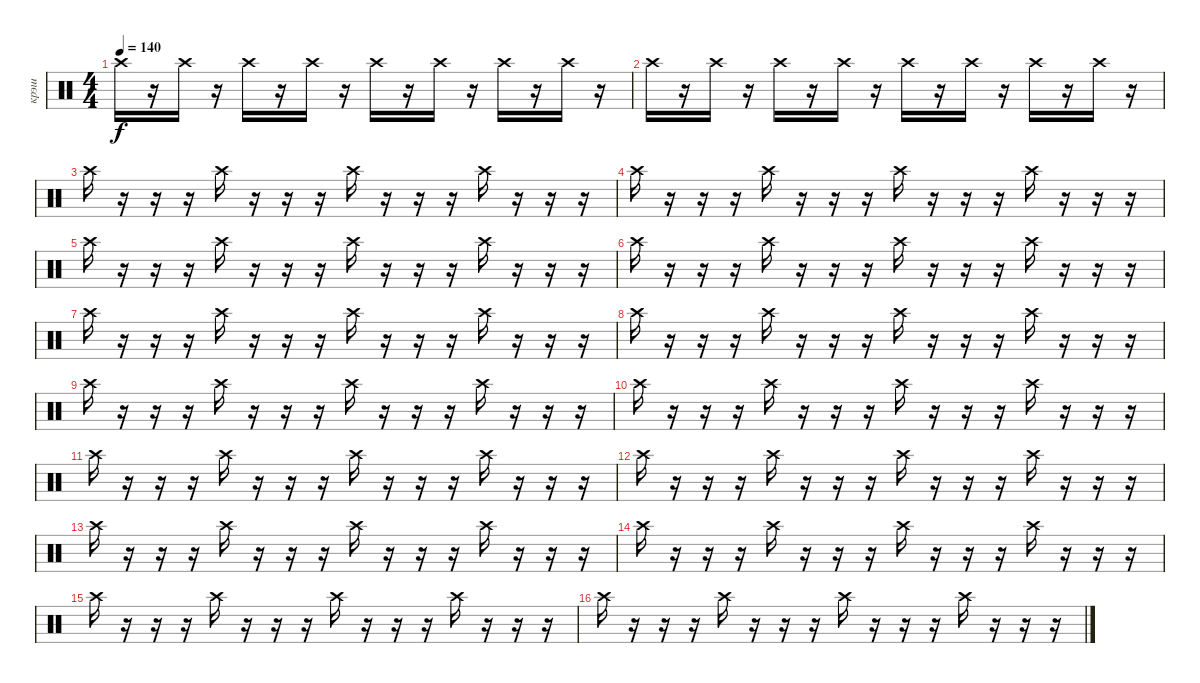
\track ("крэш" "крэш") {mute instrument percussion}
\staff {score}
\articulation defaults
\ts (4 4)
\tempo 140
\clef neutral
\ks c "Crash high (hit)".16{dy f}
r.16 "Crash high (hit)".16 r.16 "Crash high (hit)".16 r.16 "Crash high (hit)".16 r.16 "Crash high (hit)".16 r.16 "Crash high (hit)".16 r.16 "Crash high (hit)".16 r.16 "Crash high (hit)".16 r.16 |
"Crash high (hit)".16 r.16 "Crash high (hit)".16 r.16 "Crash high (hit)".16 r.16 "Crash high (hit)".16 r.16 "Crash high (hit)".16 r.16 "Crash high (hit)".16 r.16 "Crash high (hit)".16 r.16 "Crash high (hit)".16 r.16 |
"Crash high (hit)".16 r.16 r.16 r.16 "Crash high (hit)".16 r.16 r.16 r.16 "Crash high (hit)".16 r.16 r.16 r.16 "Crash high (hit)".16 r.16 r.16 r.16 |
"Crash high (hit)".16 r.16 r.16 r.16 "Crash high (hit)".16 r.16 r.16 r.16 "Crash high (hit)".16 r.16 r.16 r.16 "Crash high (hit)".16 r.16 r.16 r.16 |
"Crash high (hit)".16 r.16 r.16 r.16 "Crash high (hit)".16 r.16 r.16 r.16 "Crash high (hit)".16 r.16 r.16 r.16 "Crash high (hit)".16 r.16 r.16 r.16 |
"Crash high (hit)".16 r.16 r.16 r.16 "Crash high (hit)".16 r.16 r.16 r.16 "Crash high (hit)".16 r.16 r.16 r.16 "Crash high (hit)".16 r.16 r.16 r.16 |
"Crash high (hit)".16 r.16 r.16 r.16 "Crash high (hit)".16 r.16 r.16 r.16 "Crash high (hit)".16 r.16 r.16 r.16 "Crash high (hit)".16 r.16 r.16 r.16 |
"Crash high (hit)".16 r.16 r.16 r.16 "Crash high (hit)".16 r.16 r.16 r.16 "Crash high (hit)".16 r.16 r.16 r.16 "Crash high (hit)".16 r.16 r.16 r.16 |
"Crash high (hit)".16 r.16 r.16 r.16 "Crash high (hit)".16 r.16 r.16 r.16 "Crash high (hit)".16 r.16 r.16 r.16 "Crash high (hit)".16 r.16 r.16 r.16 |
"Crash high (hit)".16 r.16 r.16 r.16 "Crash high (hit)".16 r.16 r.16 r.16 "Crash high (hit)".16 r.16 r.16 r.16 "Crash high (hit)".16 r.16 r.16 r.16 |
"Crash high (hit)".16 r.16 r.16 r.16 "Crash high (hit)".16 r.16 r.16 r.16 "Crash high (hit)".16 r.16 r.16 r.16 "Crash high (hit)".16 r.16 r.16 r.16 |
"Crash high (hit)".16 r.16 r.16 r.16 "Crash high (hit)".16 r.16 r.16 r.16 "Crash high (hit)".16 r.16 r.16 r.16 "Crash high (hit)".16 r.16 r.16 r.16 |
"Crash high (hit)".16 r.16 r.16 r.16 "Crash high (hit)".16 r.16 r.16 r.16 "Crash high (hit)".16 r.16 r.16 r.16 "Crash high (hit)".16 r.16 r.16 r.16 |
"Crash high (hit)".16 r.16 r.16 r.16 "Crash high (hit)".16 r.16 r.16 r.16 "Crash high (hit)".16 r.16 r.16 r.16 "Crash high (hit)".16 r.16 r.16 r.16 |
"Crash high (hit)".16 r.16 r.16 r.16 "Crash high (hit)".16 r.16 r.16 r.16 "Crash high (hit)".16 r.16 r.16 r.16 "Crash high (hit)".16 r.16 r.16 r.16 |
"Crash high (hit)".16 r.16 r.16 r.16 "Crash high (hit)".16 r.16 r.16 r.16 "Crash high (hit)".16 r.16 r.16 r.16 "Crash high (hit)".16 r.16 r.16 r.16
